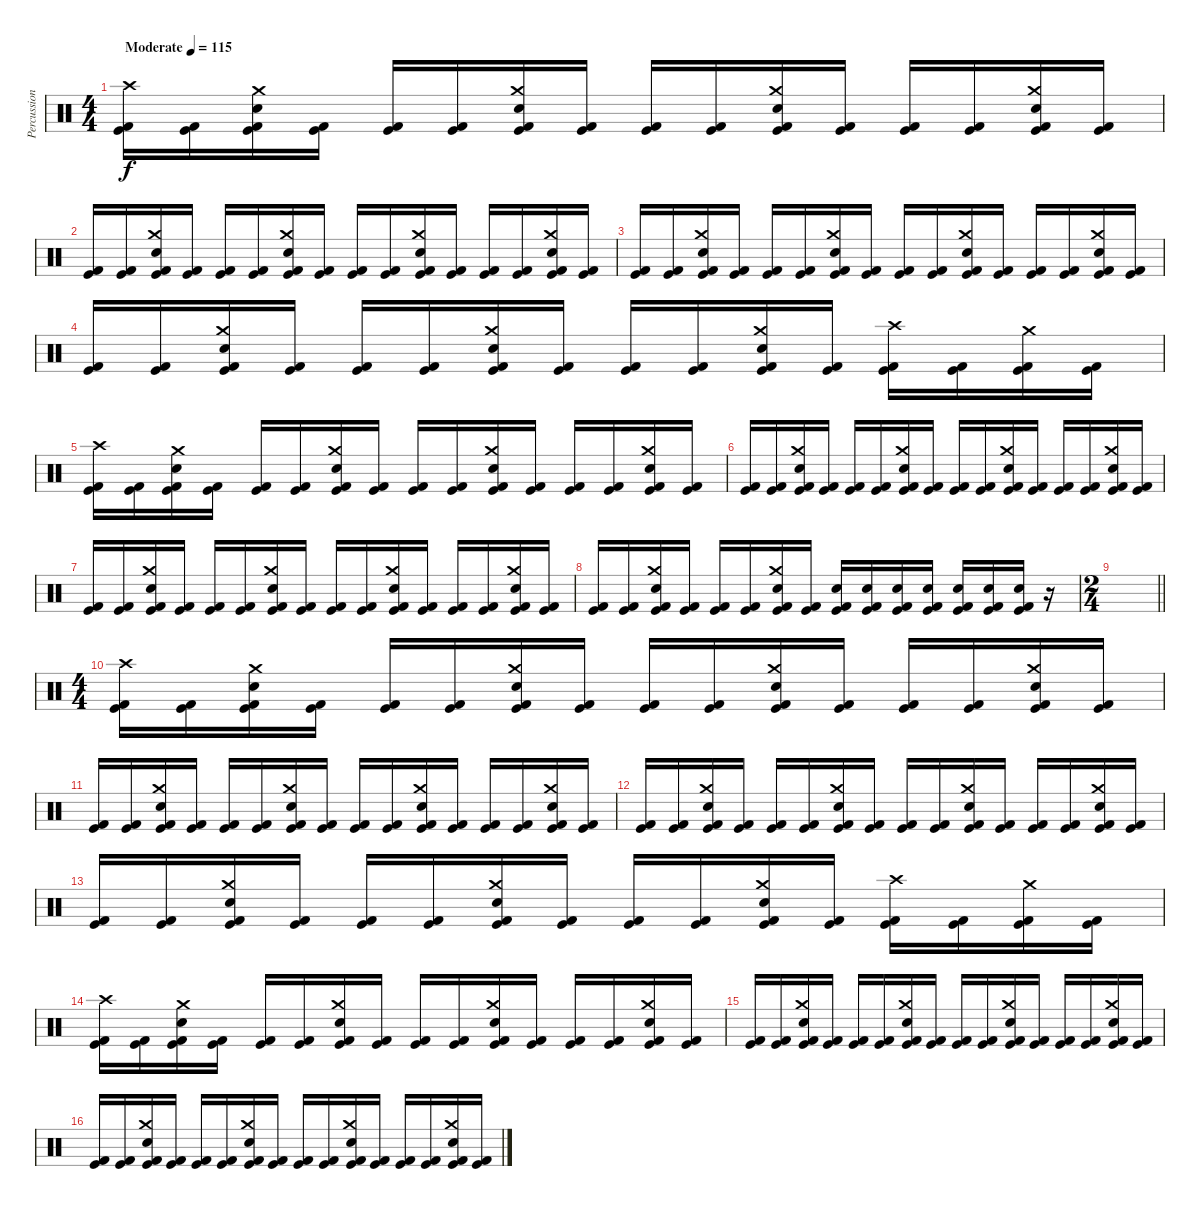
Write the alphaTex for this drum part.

\track ("Percussion" "Percussion") {instrument percussion}
\staff {score}
\articulation defaults
\ts (4 4)
\section ("" "")
\tempo (115 "Moderate")
\clef neutral
\ks c
("Crash high (hit)" "Kick (hit)" "Kick (hit) 2").16{dy f} ("Kick (hit)" "Kick (hit) 2").16 ("Crash medium (hit)" "Electric Snare (hit)" "Kick (hit)" "Kick (hit) 2").16 ("Kick (hit)" "Kick (hit) 2").16 ("Kick (hit)" "Kick (hit) 2").16 ("Kick (hit)" "Kick (hit) 2").16 ("Crash medium (hit)" "Electric Snare (hit)" "Kick (hit)" "Kick (hit) 2").16 ("Kick (hit)" "Kick (hit) 2").16 ("Kick (hit)" "Kick (hit) 2").16 ("Kick (hit)" "Kick (hit) 2").16 ("Crash medium (hit)" "Electric Snare (hit)" "Kick (hit)" "Kick (hit) 2").16 ("Kick (hit)" "Kick (hit) 2").16 ("Kick (hit)" "Kick (hit) 2").16 ("Kick (hit)" "Kick (hit) 2").16 ("Crash medium (hit)" "Electric Snare (hit)" "Kick (hit)" "Kick (hit) 2").16 ("Kick (hit)" "Kick (hit) 2").16 |
("Kick (hit)" "Kick (hit) 2").16 ("Kick (hit)" "Kick (hit) 2").16 ("Crash medium (hit)" "Electric Snare (hit)" "Kick (hit)" "Kick (hit) 2").16 ("Kick (hit)" "Kick (hit) 2").16 ("Kick (hit)" "Kick (hit) 2").16 ("Kick (hit)" "Kick (hit) 2").16 ("Crash medium (hit)" "Electric Snare (hit)" "Kick (hit)" "Kick (hit) 2").16 ("Kick (hit)" "Kick (hit) 2").16 ("Kick (hit)" "Kick (hit) 2").16 ("Kick (hit)" "Kick (hit) 2").16 ("Crash medium (hit)" "Electric Snare (hit)" "Kick (hit)" "Kick (hit) 2").16 ("Kick (hit)" "Kick (hit) 2").16 ("Kick (hit)" "Kick (hit) 2").16 ("Kick (hit)" "Kick (hit) 2").16 ("Crash medium (hit)" "Electric Snare (hit)" "Kick (hit)" "Kick (hit) 2").16 ("Kick (hit)" "Kick (hit) 2").16 |
("Kick (hit)" "Kick (hit) 2").16 ("Kick (hit)" "Kick (hit) 2").16 ("Crash medium (hit)" "Electric Snare (hit)" "Kick (hit)" "Kick (hit) 2").16 ("Kick (hit)" "Kick (hit) 2").16 ("Kick (hit)" "Kick (hit) 2").16 ("Kick (hit)" "Kick (hit) 2").16 ("Crash medium (hit)" "Electric Snare (hit)" "Kick (hit)" "Kick (hit) 2").16 ("Kick (hit)" "Kick (hit) 2").16 ("Kick (hit)" "Kick (hit) 2").16 ("Kick (hit)" "Kick (hit) 2").16 ("Crash medium (hit)" "Electric Snare (hit)" "Kick (hit)" "Kick (hit) 2").16 ("Kick (hit)" "Kick (hit) 2").16 ("Kick (hit)" "Kick (hit) 2").16 ("Kick (hit)" "Kick (hit) 2").16 ("Crash medium (hit)" "Electric Snare (hit)" "Kick (hit)" "Kick (hit) 2").16 ("Kick (hit)" "Kick (hit) 2").16 |
("Kick (hit)" "Kick (hit) 2").16 ("Kick (hit)" "Kick (hit) 2").16 ("Crash medium (hit)" "Electric Snare (hit)" "Kick (hit)" "Kick (hit) 2").16 ("Kick (hit)" "Kick (hit) 2").16 ("Kick (hit)" "Kick (hit) 2").16 ("Kick (hit)" "Kick (hit) 2").16 ("Crash medium (hit)" "Electric Snare (hit)" "Kick (hit)" "Kick (hit) 2").16 ("Kick (hit)" "Kick (hit) 2").16 ("Kick (hit)" "Kick (hit) 2").16 ("Kick (hit)" "Kick (hit) 2").16 ("Crash medium (hit)" "Electric Snare (hit)" "Kick (hit)" "Kick (hit) 2").16 ("Kick (hit)" "Kick (hit) 2").16 ("Crash high (hit)" "Kick (hit)" "Kick (hit) 2").16 ("Kick (hit)" "Kick (hit) 2").16 ("Crash medium (hit)" "Kick (hit)" "Kick (hit) 2").16 ("Kick (hit)" "Kick (hit) 2").16 |
("Crash high (hit)" "Kick (hit)" "Kick (hit) 2").16 ("Kick (hit)" "Kick (hit) 2").16 ("Crash medium (hit)" "Electric Snare (hit)" "Kick (hit)" "Kick (hit) 2").16 ("Kick (hit)" "Kick (hit) 2").16 ("Kick (hit)" "Kick (hit) 2").16 ("Kick (hit)" "Kick (hit) 2").16 ("Crash medium (hit)" "Electric Snare (hit)" "Kick (hit)" "Kick (hit) 2").16 ("Kick (hit)" "Kick (hit) 2").16 ("Kick (hit)" "Kick (hit) 2").16 ("Kick (hit)" "Kick (hit) 2").16 ("Crash medium (hit)" "Electric Snare (hit)" "Kick (hit)" "Kick (hit) 2").16 ("Kick (hit)" "Kick (hit) 2").16 ("Kick (hit)" "Kick (hit) 2").16 ("Kick (hit)" "Kick (hit) 2").16 ("Crash medium (hit)" "Electric Snare (hit)" "Kick (hit)" "Kick (hit) 2").16 ("Kick (hit)" "Kick (hit) 2").16 |
("Kick (hit)" "Kick (hit) 2").16 ("Kick (hit)" "Kick (hit) 2").16 ("Crash medium (hit)" "Electric Snare (hit)" "Kick (hit)" "Kick (hit) 2").16 ("Kick (hit)" "Kick (hit) 2").16 ("Kick (hit)" "Kick (hit) 2").16 ("Kick (hit)" "Kick (hit) 2").16 ("Crash medium (hit)" "Electric Snare (hit)" "Kick (hit)" "Kick (hit) 2").16 ("Kick (hit)" "Kick (hit) 2").16 ("Kick (hit)" "Kick (hit) 2").16 ("Kick (hit)" "Kick (hit) 2").16 ("Crash medium (hit)" "Electric Snare (hit)" "Kick (hit)" "Kick (hit) 2").16 ("Kick (hit)" "Kick (hit) 2").16 ("Kick (hit)" "Kick (hit) 2").16 ("Kick (hit)" "Kick (hit) 2").16 ("Crash medium (hit)" "Electric Snare (hit)" "Kick (hit)" "Kick (hit) 2").16 ("Kick (hit)" "Kick (hit) 2").16 |
("Kick (hit)" "Kick (hit) 2").16 ("Kick (hit)" "Kick (hit) 2").16 ("Crash medium (hit)" "Electric Snare (hit)" "Kick (hit)" "Kick (hit) 2").16 ("Kick (hit)" "Kick (hit) 2").16 ("Kick (hit)" "Kick (hit) 2").16 ("Kick (hit)" "Kick (hit) 2").16 ("Crash medium (hit)" "Electric Snare (hit)" "Kick (hit)" "Kick (hit) 2").16 ("Kick (hit)" "Kick (hit) 2").16 ("Kick (hit)" "Kick (hit) 2").16 ("Kick (hit)" "Kick (hit) 2").16 ("Crash medium (hit)" "Electric Snare (hit)" "Kick (hit)" "Kick (hit) 2").16 ("Kick (hit)" "Kick (hit) 2").16 ("Kick (hit)" "Kick (hit) 2").16 ("Kick (hit)" "Kick (hit) 2").16 ("Crash medium (hit)" "Electric Snare (hit)" "Kick (hit)" "Kick (hit) 2").16 ("Kick (hit)" "Kick (hit) 2").16 |
("Kick (hit)" "Kick (hit) 2").16 ("Kick (hit)" "Kick (hit) 2").16 ("Crash medium (hit)" "Electric Snare (hit)" "Kick (hit)" "Kick (hit) 2").16 ("Kick (hit)" "Kick (hit) 2").16 ("Kick (hit)" "Kick (hit) 2").16 ("Kick (hit)" "Kick (hit) 2").16 ("Crash medium (hit)" "Electric Snare (hit)" "Kick (hit)" "Kick (hit) 2").16 ("Kick (hit)" "Kick (hit) 2").16 ("Electric Snare (hit)" "Kick (hit)" "Kick (hit) 2").16 ("Electric Snare (hit)" "Kick (hit)" "Kick (hit) 2").16 ("Electric Snare (hit)" "Kick (hit)" "Kick (hit) 2").16 ("Electric Snare (hit)" "Kick (hit)" "Kick (hit) 2").16 ("Electric Snare (hit)" "Kick (hit)" "Kick (hit) 2").16 ("Electric Snare (hit)" "Kick (hit)" "Kick (hit) 2").16 ("Electric Snare (hit)" "Kick (hit)" "Kick (hit) 2").16 r.16 |
\ts (2 4)
\barLineRight lightlight
|
\ts (4 4)
\section ("" "")
("Crash high (hit)" "Kick (hit)" "Kick (hit) 2").16 ("Kick (hit)" "Kick (hit) 2").16 ("Crash medium (hit)" "Electric Snare (hit)" "Kick (hit)" "Kick (hit) 2").16 ("Kick (hit)" "Kick (hit) 2").16 ("Kick (hit)" "Kick (hit) 2").16 ("Kick (hit)" "Kick (hit) 2").16 ("Crash medium (hit)" "Electric Snare (hit)" "Kick (hit)" "Kick (hit) 2").16 ("Kick (hit)" "Kick (hit) 2").16 ("Kick (hit)" "Kick (hit) 2").16 ("Kick (hit)" "Kick (hit) 2").16 ("Crash medium (hit)" "Electric Snare (hit)" "Kick (hit)" "Kick (hit) 2").16 ("Kick (hit)" "Kick (hit) 2").16 ("Kick (hit)" "Kick (hit) 2").16 ("Kick (hit)" "Kick (hit) 2").16 ("Crash medium (hit)" "Electric Snare (hit)" "Kick (hit)" "Kick (hit) 2").16 ("Kick (hit)" "Kick (hit) 2").16 |
("Kick (hit)" "Kick (hit) 2").16 ("Kick (hit)" "Kick (hit) 2").16 ("Crash medium (hit)" "Electric Snare (hit)" "Kick (hit)" "Kick (hit) 2").16 ("Kick (hit)" "Kick (hit) 2").16 ("Kick (hit)" "Kick (hit) 2").16 ("Kick (hit)" "Kick (hit) 2").16 ("Crash medium (hit)" "Electric Snare (hit)" "Kick (hit)" "Kick (hit) 2").16 ("Kick (hit)" "Kick (hit) 2").16 ("Kick (hit)" "Kick (hit) 2").16 ("Kick (hit)" "Kick (hit) 2").16 ("Crash medium (hit)" "Electric Snare (hit)" "Kick (hit)" "Kick (hit) 2").16 ("Kick (hit)" "Kick (hit) 2").16 ("Kick (hit)" "Kick (hit) 2").16 ("Kick (hit)" "Kick (hit) 2").16 ("Crash medium (hit)" "Electric Snare (hit)" "Kick (hit)" "Kick (hit) 2").16 ("Kick (hit)" "Kick (hit) 2").16 |
("Kick (hit)" "Kick (hit) 2").16 ("Kick (hit)" "Kick (hit) 2").16 ("Crash medium (hit)" "Electric Snare (hit)" "Kick (hit)" "Kick (hit) 2").16 ("Kick (hit)" "Kick (hit) 2").16 ("Kick (hit)" "Kick (hit) 2").16 ("Kick (hit)" "Kick (hit) 2").16 ("Crash medium (hit)" "Electric Snare (hit)" "Kick (hit)" "Kick (hit) 2").16 ("Kick (hit)" "Kick (hit) 2").16 ("Kick (hit)" "Kick (hit) 2").16 ("Kick (hit)" "Kick (hit) 2").16 ("Crash medium (hit)" "Electric Snare (hit)" "Kick (hit)" "Kick (hit) 2").16 ("Kick (hit)" "Kick (hit) 2").16 ("Kick (hit)" "Kick (hit) 2").16 ("Kick (hit)" "Kick (hit) 2").16 ("Crash medium (hit)" "Electric Snare (hit)" "Kick (hit)" "Kick (hit) 2").16 ("Kick (hit)" "Kick (hit) 2").16 |
("Kick (hit)" "Kick (hit) 2").16 ("Kick (hit)" "Kick (hit) 2").16 ("Crash medium (hit)" "Electric Snare (hit)" "Kick (hit)" "Kick (hit) 2").16 ("Kick (hit)" "Kick (hit) 2").16 ("Kick (hit)" "Kick (hit) 2").16 ("Kick (hit)" "Kick (hit) 2").16 ("Crash medium (hit)" "Electric Snare (hit)" "Kick (hit)" "Kick (hit) 2").16 ("Kick (hit)" "Kick (hit) 2").16 ("Kick (hit)" "Kick (hit) 2").16 ("Kick (hit)" "Kick (hit) 2").16 ("Crash medium (hit)" "Electric Snare (hit)" "Kick (hit)" "Kick (hit) 2").16 ("Kick (hit)" "Kick (hit) 2").16 ("Crash high (hit)" "Kick (hit)" "Kick (hit) 2").16 ("Kick (hit)" "Kick (hit) 2").16 ("Crash medium (hit)" "Kick (hit)" "Kick (hit) 2").16 ("Kick (hit)" "Kick (hit) 2").16 |
("Crash high (hit)" "Kick (hit)" "Kick (hit) 2").16 ("Kick (hit)" "Kick (hit) 2").16 ("Crash medium (hit)" "Electric Snare (hit)" "Kick (hit)" "Kick (hit) 2").16 ("Kick (hit)" "Kick (hit) 2").16 ("Kick (hit)" "Kick (hit) 2").16 ("Kick (hit)" "Kick (hit) 2").16 ("Crash medium (hit)" "Electric Snare (hit)" "Kick (hit)" "Kick (hit) 2").16 ("Kick (hit)" "Kick (hit) 2").16 ("Kick (hit)" "Kick (hit) 2").16 ("Kick (hit)" "Kick (hit) 2").16 ("Crash medium (hit)" "Electric Snare (hit)" "Kick (hit)" "Kick (hit) 2").16 ("Kick (hit)" "Kick (hit) 2").16 ("Kick (hit)" "Kick (hit) 2").16 ("Kick (hit)" "Kick (hit) 2").16 ("Crash medium (hit)" "Electric Snare (hit)" "Kick (hit)" "Kick (hit) 2").16 ("Kick (hit)" "Kick (hit) 2").16 |
("Kick (hit)" "Kick (hit) 2").16 ("Kick (hit)" "Kick (hit) 2").16 ("Crash medium (hit)" "Electric Snare (hit)" "Kick (hit)" "Kick (hit) 2").16 ("Kick (hit)" "Kick (hit) 2").16 ("Kick (hit)" "Kick (hit) 2").16 ("Kick (hit)" "Kick (hit) 2").16 ("Crash medium (hit)" "Electric Snare (hit)" "Kick (hit)" "Kick (hit) 2").16 ("Kick (hit)" "Kick (hit) 2").16 ("Kick (hit)" "Kick (hit) 2").16 ("Kick (hit)" "Kick (hit) 2").16 ("Crash medium (hit)" "Electric Snare (hit)" "Kick (hit)" "Kick (hit) 2").16 ("Kick (hit)" "Kick (hit) 2").16 ("Kick (hit)" "Kick (hit) 2").16 ("Kick (hit)" "Kick (hit) 2").16 ("Crash medium (hit)" "Electric Snare (hit)" "Kick (hit)" "Kick (hit) 2").16 ("Kick (hit)" "Kick (hit) 2").16 |
("Kick (hit)" "Kick (hit) 2").16 ("Kick (hit)" "Kick (hit) 2").16 ("Crash medium (hit)" "Electric Snare (hit)" "Kick (hit)" "Kick (hit) 2").16 ("Kick (hit)" "Kick (hit) 2").16 ("Kick (hit)" "Kick (hit) 2").16 ("Kick (hit)" "Kick (hit) 2").16 ("Crash medium (hit)" "Electric Snare (hit)" "Kick (hit)" "Kick (hit) 2").16 ("Kick (hit)" "Kick (hit) 2").16 ("Kick (hit)" "Kick (hit) 2").16 ("Kick (hit)" "Kick (hit) 2").16 ("Crash medium (hit)" "Electric Snare (hit)" "Kick (hit)" "Kick (hit) 2").16 ("Kick (hit)" "Kick (hit) 2").16 ("Kick (hit)" "Kick (hit) 2").16 ("Kick (hit)" "Kick (hit) 2").16 ("Crash medium (hit)" "Electric Snare (hit)" "Kick (hit)" "Kick (hit) 2").16 ("Kick (hit)" "Kick (hit) 2").16
